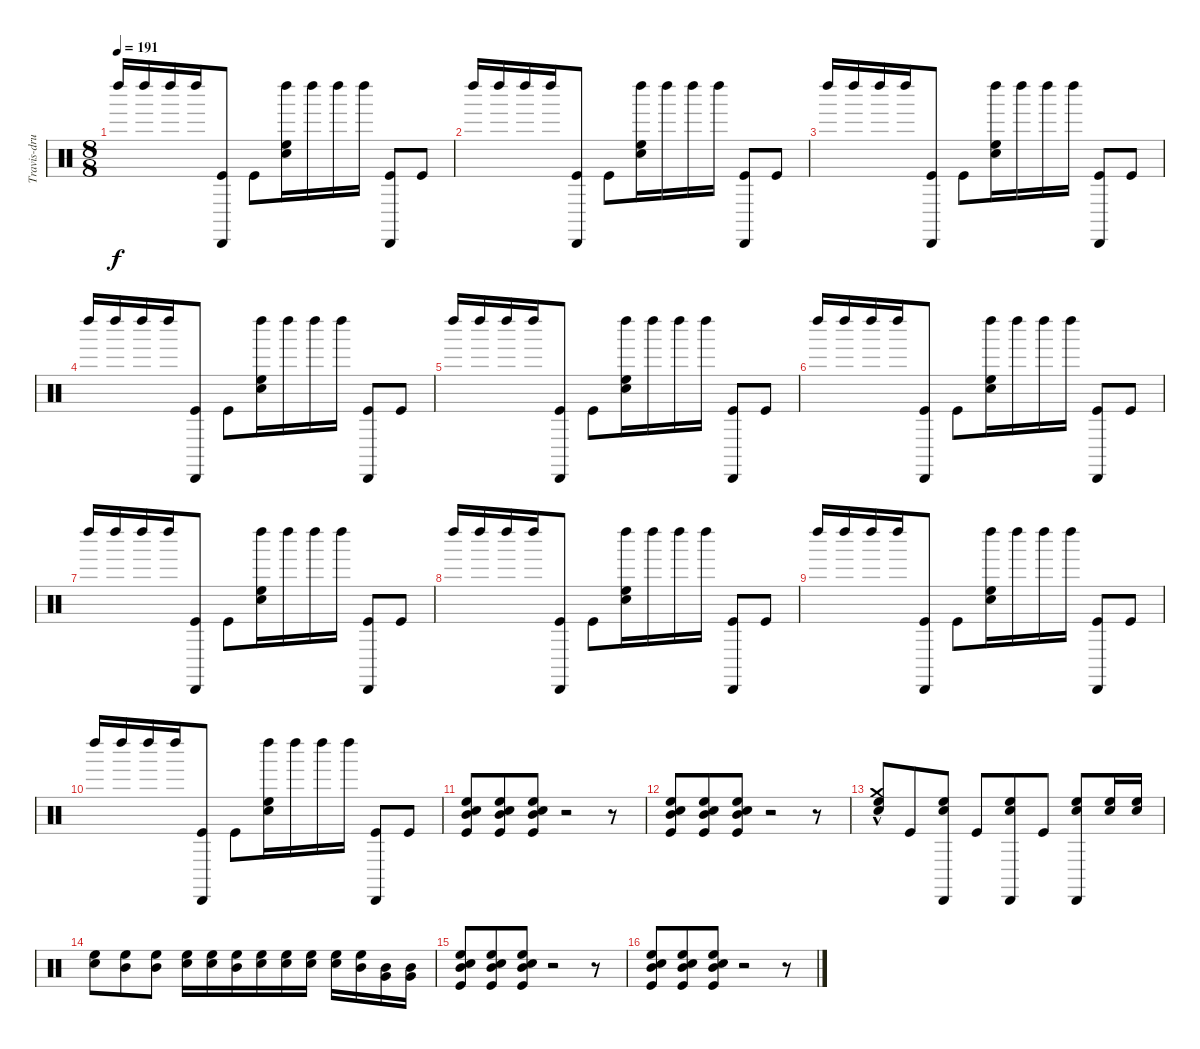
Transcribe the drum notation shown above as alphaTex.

\track ("Travis-drums" "Travis-dru") {instrument percussion}
\staff {score}
\articulation defaults
\ts (8 8)
\tempo 191
\clef neutral
\ks c "Left Maraca (hit)".16{dy f} "Left Maraca (hit)".16 "Left Maraca (hit)".16 "Left Maraca (hit)".16
("Kick (hit)" "Cabasa (hit)").8 "Kick (hit)".8 ("High Floor Tom (hit)" "Electric Snare (hit)" "Left Maraca (hit)").16 "Left Maraca (hit)".16 "Left Maraca (hit)".16 "Left Maraca (hit)".16 ("Kick (hit)" "Cabasa (hit)").8 "Kick (hit)".8 |
"Left Maraca (hit)".16 "Left Maraca (hit)".16 "Left Maraca (hit)".16 "Left Maraca (hit)".16 ("Kick (hit)" "Cabasa (hit)").8 "Kick (hit)".8 ("High Floor Tom (hit)" "Electric Snare (hit)" "Left Maraca (hit)").16 "Left Maraca (hit)".16 "Left Maraca (hit)".16 "Left Maraca (hit)".16 ("Kick (hit)" "Cabasa (hit)").8 "Kick (hit)".8 |
"Left Maraca (hit)".16 "Left Maraca (hit)".16 "Left Maraca (hit)".16 "Left Maraca (hit)".16 ("Kick (hit)" "Cabasa (hit)").8 "Kick (hit)".8 ("High Floor Tom (hit)" "Electric Snare (hit)" "Left Maraca (hit)").16 "Left Maraca (hit)".16 "Left Maraca (hit)".16 "Left Maraca (hit)".16 ("Kick (hit)" "Cabasa (hit)").8 "Kick (hit)".8 |
"Left Maraca (hit)".16 "Left Maraca (hit)".16 "Left Maraca (hit)".16 "Left Maraca (hit)".16 ("Kick (hit)" "Cabasa (hit)").8 "Kick (hit)".8 ("High Floor Tom (hit)" "Electric Snare (hit)" "Left Maraca (hit)").16 "Left Maraca (hit)".16 "Left Maraca (hit)".16 "Left Maraca (hit)".16 ("Kick (hit)" "Cabasa (hit)").8 "Kick (hit)".8 |
"Left Maraca (hit)".16 "Left Maraca (hit)".16 "Left Maraca (hit)".16 "Left Maraca (hit)".16 ("Kick (hit)" "Cabasa (hit)").8 "Kick (hit)".8 ("High Floor Tom (hit)" "Electric Snare (hit)" "Left Maraca (hit)").16 "Left Maraca (hit)".16 "Left Maraca (hit)".16 "Left Maraca (hit)".16 ("Kick (hit)" "Cabasa (hit)").8 "Kick (hit)".8 |
"Left Maraca (hit)".16 "Left Maraca (hit)".16 "Left Maraca (hit)".16 "Left Maraca (hit)".16 ("Kick (hit)" "Cabasa (hit)").8 "Kick (hit)".8 ("High Floor Tom (hit)" "Electric Snare (hit)" "Left Maraca (hit)").16 "Left Maraca (hit)".16 "Left Maraca (hit)".16 "Left Maraca (hit)".16 ("Kick (hit)" "Cabasa (hit)").8 "Kick (hit)".8 |
"Left Maraca (hit)".16 "Left Maraca (hit)".16 "Left Maraca (hit)".16 "Left Maraca (hit)".16 ("Kick (hit)" "Cabasa (hit)").8 "Kick (hit)".8 ("High Floor Tom (hit)" "Electric Snare (hit)" "Left Maraca (hit)").16 "Left Maraca (hit)".16 "Left Maraca (hit)".16 "Left Maraca (hit)".16 ("Kick (hit)" "Cabasa (hit)").8 "Kick (hit)".8 |
"Left Maraca (hit)".16 "Left Maraca (hit)".16 "Left Maraca (hit)".16 "Left Maraca (hit)".16 ("Kick (hit)" "Cabasa (hit)").8 "Kick (hit)".8 ("High Floor Tom (hit)" "Electric Snare (hit)" "Left Maraca (hit)").16 "Left Maraca (hit)".16 "Left Maraca (hit)".16 "Left Maraca (hit)".16 ("Kick (hit)" "Cabasa (hit)").8 "Kick (hit)".8 |
"Left Maraca (hit)".16 "Left Maraca (hit)".16 "Left Maraca (hit)".16 "Left Maraca (hit)".16 ("Kick (hit)" "Cabasa (hit)").8 "Kick (hit)".8 ("High Floor Tom (hit)" "Electric Snare (hit)" "Left Maraca (hit)").16 "Left Maraca (hit)".16 "Left Maraca (hit)".16 "Left Maraca (hit)".16 ("Kick (hit)" "Cabasa (hit)").8 "Kick (hit)".8 |
"Left Maraca (hit)".16 "Left Maraca (hit)".16 "Left Maraca (hit)".16 "Left Maraca (hit)".16 ("Kick (hit)" "Cabasa (hit)").8 "Kick (hit)".8 ("High Floor Tom (hit)" "Electric Snare (hit)" "Left Maraca (hit)").16 "Left Maraca (hit)".16 "Left Maraca (hit)".16 "Left Maraca (hit)".16 ("Kick (hit)" "Cabasa (hit)").8 "Kick (hit)".8 |
("Kick (hit)" "Mid Tom (hit)" "High Floor Tom (hit)" "Electric Snare (hit)").8 ("Kick (hit)" "Mid Tom (hit)" "High Floor Tom (hit)" "Electric Snare (hit)").8 ("Kick (hit)" "High Floor Tom (hit)" "Mid Tom (hit)" "Electric Snare (hit)").8 r.2 r.8 |
("Kick (hit)" "Mid Tom (hit)" "High Floor Tom (hit)" "Electric Snare (hit)").8 ("Kick (hit)" "Mid Tom (hit)" "High Floor Tom (hit)" "Electric Snare (hit)").8 ("Kick (hit)" "High Floor Tom (hit)" "Mid Tom (hit)" "Electric Snare (hit)").8 r.2 r.8 |
("High Floor Tom (hit)" "Crash medium (hit)"{hac} "Electric Snare (hit)").8 "Kick (hit)".8 ("High Floor Tom (hit)" "Cabasa (hit)" "Electric Snare (hit)").8 "Kick (hit)".8 ("High Floor Tom (hit)" "Cabasa (hit)" "Electric Snare (hit)").8 "Kick (hit)".8 ("High Floor Tom (hit)" "Cabasa (hit)" "Electric Snare (hit)").8 ("High Floor Tom (hit)" "Electric Snare (hit)").16 ("High Floor Tom (hit)" "Electric Snare (hit)").16 |
("High Floor Tom (hit)" "Electric Snare (hit)").8 ("Mid Tom (hit)" "High Floor Tom (hit)").8 ("Mid Tom (hit)" "High Floor Tom (hit)").8 ("High Floor Tom (hit)" "Electric Snare (hit)").16 ("High Floor Tom (hit)" "Electric Snare (hit)").16 ("Mid Tom (hit)" "High Floor Tom (hit)").16 ("Electric Snare (hit)" "High Floor Tom (hit)").16 ("High Floor Tom (hit)" "Electric Snare (hit)").16 ("High Floor Tom (hit)" "Electric Snare (hit)").16 ("Electric Snare (hit)" "High Floor Tom (hit)").16 ("Mid Tom (hit)" "High Floor Tom (hit)").16 ("Very Low Tom (hit)" "Mid Tom (hit)").16 ("Very Low Tom (hit)" "Mid Tom (hit)").16 |
("Kick (hit)" "Mid Tom (hit)" "High Floor Tom (hit)" "Electric Snare (hit)").8 ("Kick (hit)" "Mid Tom (hit)" "High Floor Tom (hit)" "Electric Snare (hit)").8 ("Kick (hit)" "High Floor Tom (hit)" "Mid Tom (hit)" "Electric Snare (hit)").8 r.2 r.8 |
("Kick (hit)" "Mid Tom (hit)" "High Floor Tom (hit)" "Electric Snare (hit)").8 ("Kick (hit)" "Mid Tom (hit)" "High Floor Tom (hit)" "Electric Snare (hit)").8 ("Kick (hit)" "High Floor Tom (hit)" "Mid Tom (hit)" "Electric Snare (hit)").8 r.2 r.8
